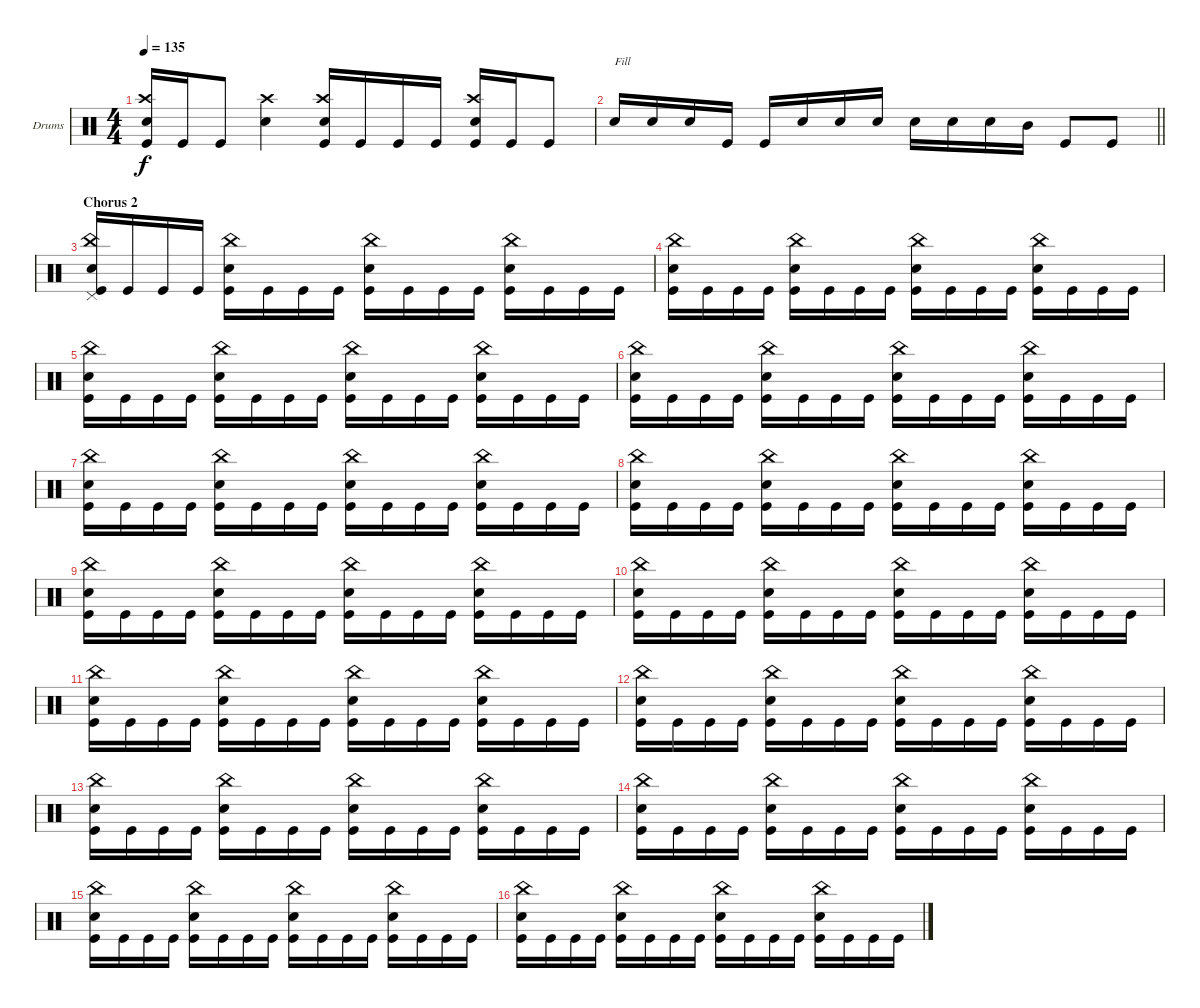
\bracketExtendMode groupsimilarinstruments
\firstSystemTrackNameOrientation horizontal
\otherSystemsTrackNameOrientation horizontal
\track ("Drumkit" "Drums") {instrument percussion}
\staff {score}
\articulation defaults
\ts (4 4)
\tempo 135
\clef neutral
\ks c
("Kick (hit)" "Crash high (hit)" "Snare (hit) 2").16{dy f} "Kick (hit)".16 "Kick (hit)".8 ("Crash high (hit)" "Snare (hit) 2").4 ("Crash high (hit)" "Kick (hit)" "Snare (hit) 2").16 "Kick (hit)".16 "Kick (hit)".16 "Kick (hit)".16 ("Kick (hit)" "Crash high (hit)" "Snare (hit) 2").16 "Kick (hit)".16 "Kick (hit)".8 |
\barLineRight lightlight "Snare (hit) 2".16{txt "Fill"} "Snare (hit) 2".16 "Snare (hit) 2".16 "Kick (hit)".16 "Kick (hit)".16 "Snare (hit) 2".16 "Snare (hit) 2".16 "Snare (hit) 2".16 "Snare (hit) 2".16 "Snare (hit) 2".16 "Snare (hit) 2".16 "Mid Tom (hit)".16 "Kick (hit)".8 "Kick (hit)".8
|
\section ("" "Chorus 2")
("Kick (hit)" "Snare (hit) 2" "China (hit)" "Pedal Hi-Hat (hit)").16 "Kick (hit)".16 "Kick (hit)".16 "Kick (hit)".16 ("Kick (hit)" "Snare (hit) 2" "China (hit)").16 "Kick (hit)".16 "Kick (hit)".16 "Kick (hit)".16 ("Kick (hit)" "Snare (hit) 2" "China (hit)").16 "Kick (hit)".16 "Kick (hit)".16 "Kick (hit)".16 ("Kick (hit)" "Snare (hit) 2" "China (hit)").16 "Kick (hit)".16 "Kick (hit)".16 "Kick (hit)".16 |
("Kick (hit)" "Snare (hit) 2" "China (hit)").16 "Kick (hit)".16 "Kick (hit)".16 "Kick (hit)".16 ("Kick (hit)" "Snare (hit) 2" "China (hit)").16 "Kick (hit)".16 "Kick (hit)".16 "Kick (hit)".16 ("Kick (hit)" "Snare (hit) 2" "China (hit)").16 "Kick (hit)".16 "Kick (hit)".16 "Kick (hit)".16 ("Kick (hit)" "Snare (hit) 2" "China (hit)").16 "Kick (hit)".16 "Kick (hit)".16 "Kick (hit)".16 |
("Kick (hit)" "Snare (hit) 2" "China (hit)").16 "Kick (hit)".16 "Kick (hit)".16 "Kick (hit)".16 ("Kick (hit)" "Snare (hit) 2" "China (hit)").16 "Kick (hit)".16 "Kick (hit)".16 "Kick (hit)".16 ("Kick (hit)" "Snare (hit) 2" "China (hit)").16 "Kick (hit)".16 "Kick (hit)".16 "Kick (hit)".16 ("Kick (hit)" "Snare (hit) 2" "China (hit)").16 "Kick (hit)".16 "Kick (hit)".16 "Kick (hit)".16 |
("Kick (hit)" "Snare (hit) 2" "China (hit)").16 "Kick (hit)".16 "Kick (hit)".16 "Kick (hit)".16 ("Kick (hit)" "Snare (hit) 2" "China (hit)").16 "Kick (hit)".16 "Kick (hit)".16 "Kick (hit)".16 ("Kick (hit)" "Snare (hit) 2" "China (hit)").16 "Kick (hit)".16 "Kick (hit)".16 "Kick (hit)".16 ("Kick (hit)" "Snare (hit) 2" "China (hit)").16 "Kick (hit)".16 "Kick (hit)".16 "Kick (hit)".16 |
("Kick (hit)" "Snare (hit) 2" "China (hit)").16 "Kick (hit)".16 "Kick (hit)".16 "Kick (hit)".16 ("Kick (hit)" "Snare (hit) 2" "China (hit)").16 "Kick (hit)".16 "Kick (hit)".16 "Kick (hit)".16 ("Kick (hit)" "Snare (hit) 2" "China (hit)").16 "Kick (hit)".16 "Kick (hit)".16 "Kick (hit)".16 ("Kick (hit)" "Snare (hit) 2" "China (hit)").16 "Kick (hit)".16 "Kick (hit)".16 "Kick (hit)".16 |
("Kick (hit)" "Snare (hit) 2" "China (hit)").16 "Kick (hit)".16 "Kick (hit)".16 "Kick (hit)".16 ("Kick (hit)" "Snare (hit) 2" "China (hit)").16 "Kick (hit)".16 "Kick (hit)".16 "Kick (hit)".16 ("Kick (hit)" "Snare (hit) 2" "China (hit)").16 "Kick (hit)".16 "Kick (hit)".16 "Kick (hit)".16 ("Kick (hit)" "Snare (hit) 2" "China (hit)").16 "Kick (hit)".16 "Kick (hit)".16 "Kick (hit)".16 |
("Kick (hit)" "Snare (hit) 2" "China (hit)").16 "Kick (hit)".16 "Kick (hit)".16 "Kick (hit)".16 ("Kick (hit)" "Snare (hit) 2" "China (hit)").16 "Kick (hit)".16 "Kick (hit)".16 "Kick (hit)".16 ("Kick (hit)" "Snare (hit) 2" "China (hit)").16 "Kick (hit)".16 "Kick (hit)".16 "Kick (hit)".16 ("Kick (hit)" "Snare (hit) 2" "China (hit)").16 "Kick (hit)".16 "Kick (hit)".16 "Kick (hit)".16 |
("Kick (hit)" "Snare (hit) 2" "China (hit)").16 "Kick (hit)".16 "Kick (hit)".16 "Kick (hit)".16 ("Kick (hit)" "Snare (hit) 2" "China (hit)").16 "Kick (hit)".16 "Kick (hit)".16 "Kick (hit)".16 ("Kick (hit)" "Snare (hit) 2" "China (hit)").16 "Kick (hit)".16 "Kick (hit)".16 "Kick (hit)".16 ("Kick (hit)" "Snare (hit) 2" "China (hit)").16 "Kick (hit)".16 "Kick (hit)".16 "Kick (hit)".16 |
("Kick (hit)" "Snare (hit) 2" "China (hit)").16 "Kick (hit)".16 "Kick (hit)".16 "Kick (hit)".16 ("Kick (hit)" "Snare (hit) 2" "China (hit)").16 "Kick (hit)".16 "Kick (hit)".16 "Kick (hit)".16 ("Kick (hit)" "Snare (hit) 2" "China (hit)").16 "Kick (hit)".16 "Kick (hit)".16 "Kick (hit)".16 ("Kick (hit)" "Snare (hit) 2" "China (hit)").16 "Kick (hit)".16 "Kick (hit)".16 "Kick (hit)".16 |
("Kick (hit)" "Snare (hit) 2" "China (hit)").16 "Kick (hit)".16 "Kick (hit)".16 "Kick (hit)".16 ("Kick (hit)" "Snare (hit) 2" "China (hit)").16 "Kick (hit)".16 "Kick (hit)".16 "Kick (hit)".16 ("Kick (hit)" "Snare (hit) 2" "China (hit)").16 "Kick (hit)".16 "Kick (hit)".16 "Kick (hit)".16 ("Kick (hit)" "Snare (hit) 2" "China (hit)").16 "Kick (hit)".16 "Kick (hit)".16 "Kick (hit)".16 |
("Kick (hit)" "Snare (hit) 2" "China (hit)").16 "Kick (hit)".16 "Kick (hit)".16 "Kick (hit)".16 ("Kick (hit)" "Snare (hit) 2" "China (hit)").16 "Kick (hit)".16 "Kick (hit)".16 "Kick (hit)".16 ("Kick (hit)" "Snare (hit) 2" "China (hit)").16 "Kick (hit)".16 "Kick (hit)".16 "Kick (hit)".16 ("Kick (hit)" "Snare (hit) 2" "China (hit)").16 "Kick (hit)".16 "Kick (hit)".16 "Kick (hit)".16 |
("Kick (hit)" "Snare (hit) 2" "China (hit)").16 "Kick (hit)".16 "Kick (hit)".16 "Kick (hit)".16 ("Kick (hit)" "Snare (hit) 2" "China (hit)").16 "Kick (hit)".16 "Kick (hit)".16 "Kick (hit)".16 ("Kick (hit)" "Snare (hit) 2" "China (hit)").16 "Kick (hit)".16 "Kick (hit)".16 "Kick (hit)".16 ("Kick (hit)" "Snare (hit) 2" "China (hit)").16 "Kick (hit)".16 "Kick (hit)".16 "Kick (hit)".16 |
("Kick (hit)" "Snare (hit) 2" "China (hit)").16 "Kick (hit)".16 "Kick (hit)".16 "Kick (hit)".16 ("Kick (hit)" "Snare (hit) 2" "China (hit)").16 "Kick (hit)".16 "Kick (hit)".16 "Kick (hit)".16 ("Kick (hit)" "Snare (hit) 2" "China (hit)").16 "Kick (hit)".16 "Kick (hit)".16 "Kick (hit)".16 ("Kick (hit)" "Snare (hit) 2" "China (hit)").16 "Kick (hit)".16 "Kick (hit)".16 "Kick (hit)".16 |
("Kick (hit)" "Snare (hit) 2" "China (hit)").16 "Kick (hit)".16 "Kick (hit)".16 "Kick (hit)".16 ("Kick (hit)" "Snare (hit) 2" "China (hit)").16 "Kick (hit)".16 "Kick (hit)".16 "Kick (hit)".16 ("Kick (hit)" "Snare (hit) 2" "China (hit)").16 "Kick (hit)".16 "Kick (hit)".16 "Kick (hit)".16 ("Kick (hit)" "Snare (hit) 2" "China (hit)").16 "Kick (hit)".16 "Kick (hit)".16 "Kick (hit)".16
